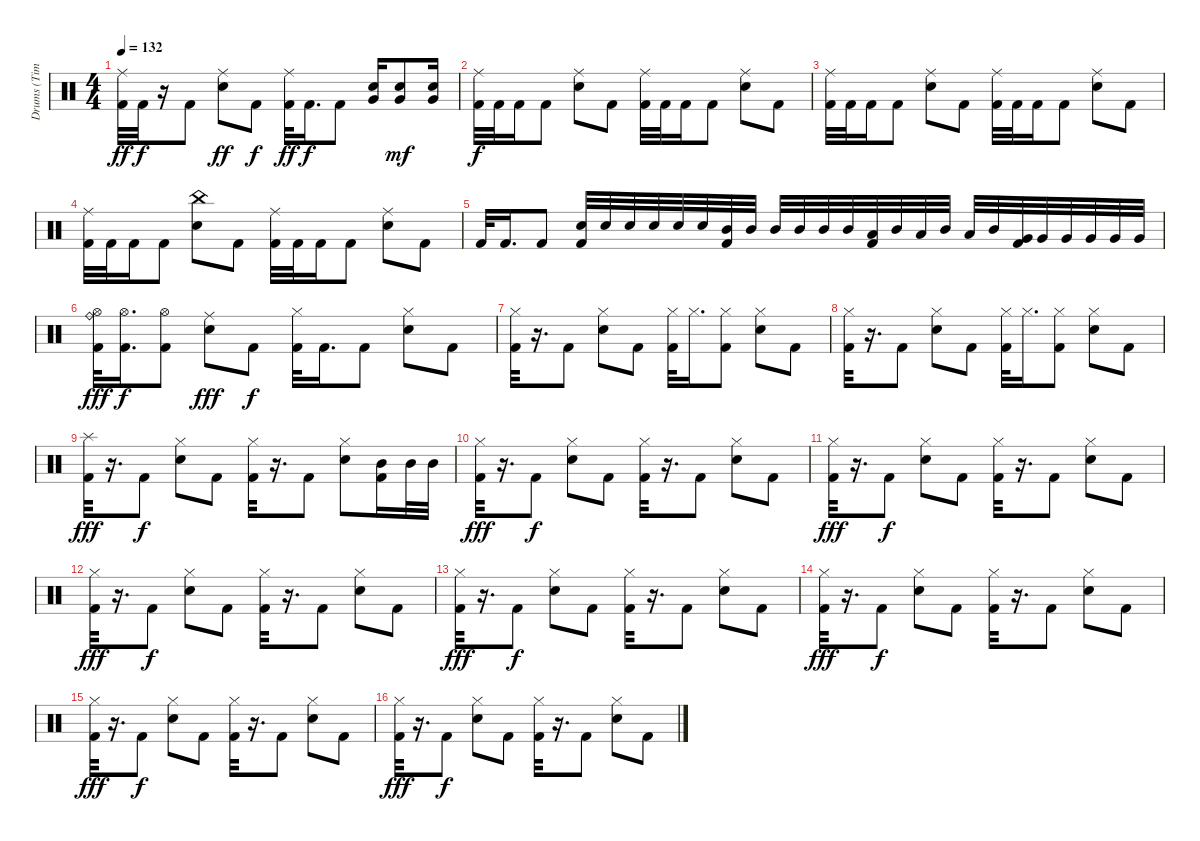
\track ("Drums (Tim Alexander)" "Drums (Tim") {instrument percussion}
\staff {score}
\articulation defaults
\ts (4 4)
\tempo 132
\clef neutral
\ks c
("Ride (middle)" "Kick (hit) 2").32{dy ff} "Kick (hit) 2".32{dy f} r.16 "Kick (hit) 2".8 ("Ride (middle)" "Snare (hit) 2").8{dy ff} "Kick (hit) 2".8{dy f} ("Ride (middle)" "Kick (hit) 2").32{dy ff} "Kick (hit) 2".16{d dy f} "Kick (hit) 2".8 ("Snare (hit) 2" "Very Low Tom (hit)").16 ("Very Low Tom (hit)" "Snare (hit) 2").8{dy mf} ("Very Low Tom (hit)" "Snare (hit) 2").16 |
("Ride (middle)" "Kick (hit) 2").32{dy f} "Kick (hit) 2".32 "Kick (hit) 2".16 "Kick (hit) 2".8 ("Ride (middle)" "Snare (hit) 2").8 "Kick (hit) 2".8 ("Ride (middle)" "Kick (hit) 2").32 "Kick (hit) 2".32 "Kick (hit) 2".16 "Kick (hit) 2".8 ("Ride (middle)" "Snare (hit) 2").8 "Kick (hit) 2".8 |
("Ride (middle)" "Kick (hit) 2").32 "Kick (hit) 2".32 "Kick (hit) 2".16 "Kick (hit) 2".8 ("Ride (middle)" "Snare (hit) 2").8 "Kick (hit) 2".8 ("Ride (middle)" "Kick (hit) 2").32 "Kick (hit) 2".32 "Kick (hit) 2".16 "Kick (hit) 2".8 ("Ride (middle)" "Snare (hit) 2").8 "Kick (hit) 2".8 |
("Ride (middle)" "Kick (hit) 2").32 "Kick (hit) 2".32 "Kick (hit) 2".16 "Kick (hit) 2".8 ("China (hit)" "Snare (hit) 2").8 "Kick (hit) 2".8 ("Ride (middle)" "Kick (hit) 2").32 "Kick (hit) 2".32 "Kick (hit) 2".16 "Kick (hit) 2".8 ("Ride (middle)" "Snare (hit) 2").8 "Kick (hit) 2".8 |
"Kick (hit) 2".32 "Kick (hit) 2".16{d} "Kick (hit) 2".8 ("Snare (hit) 2" "Kick (hit) 2").32 "Snare (hit) 2".32 "Snare (hit) 2".32 "Snare (hit) 2".32 "Snare (hit) 2".32 "Snare (hit) 2".32 ("Mid Tom (hit)" "Kick (hit) 2").32 "Mid Tom (hit)".32 "Mid Tom (hit)".32 "Mid Tom (hit)".32 "Mid Tom (hit)".32 "Mid Tom (hit)".32 ("Low Tom (hit)" "Kick (hit) 2").32 "Mid Tom (hit)".32 "Low Tom (hit)".32 "Mid Tom (hit)".32 "Low Tom (hit)".32 "Mid Tom (hit)".32 ("Very Low Tom (hit)" "Kick (hit) 2").32 "Very Low Tom (hit)".32 "Very Low Tom (hit)".32 "Very Low Tom (hit)".32 "Very Low Tom (hit)".32 "Very Low Tom (hit)".32 |
("Hi-Hat (open)" "Ride (bell)" "Kick (hit) 2").32{dy fff} ("Hi-Hat (open)" "Kick (hit) 2").16{d dy f} ("Hi-Hat (open)" "Kick (hit) 2").8 ("Ride (middle)" "Snare (hit) 2").8{dy fff} "Kick (hit) 2".8{dy f} ("Hi-Hat (closed)" "Kick (hit) 2").32 "Kick (hit) 2".16{d} "Kick (hit) 2".8 ("Hi-Hat (closed)" "Snare (hit) 2").8 "Kick (hit) 2".8 |
("Hi-Hat (closed)" "Kick (hit) 2").32 r.16{d} "Kick (hit) 2".8 ("Hi-Hat (closed)" "Snare (hit) 2").8 "Kick (hit) 2".8 ("Hi-Hat (closed)" "Kick (hit) 2").32 "Hi-Hat (closed)".16{d} ("Hi-Hat (closed)" "Kick (hit) 2").8 ("Hi-Hat (closed)" "Snare (hit) 2").8 "Kick (hit) 2".8 |
("Hi-Hat (closed)" "Kick (hit) 2").32 r.16{d} "Kick (hit) 2".8 ("Hi-Hat (closed)" "Snare (hit) 2").8 "Kick (hit) 2".8 ("Hi-Hat (closed)" "Kick (hit) 2").32 "Hi-Hat (closed)".16{d} ("Hi-Hat (closed)" "Kick (hit) 2").8 ("Hi-Hat (closed)" "Snare (hit) 2").8 "Kick (hit) 2".8 |
("Splash (hit)" "Kick (hit) 2").32{dy fff} r.16{d} "Kick (hit) 2".8{dy f} ("Hi-Hat (closed)" "Snare (hit) 2").8 "Kick (hit) 2".8 ("Hi-Hat (closed)" "Kick (hit) 2").32 r.16{d} "Kick (hit) 2".8 ("Hi-Hat (closed)" "Snare (hit) 2").8 ("Mid Tom (hit)" "Kick (hit) 2").16 "Mid Tom (hit)".32 "Mid Tom (hit)".32 |
("Hi-Hat (closed)" "Kick (hit) 2").32{dy fff} r.16{d} "Kick (hit) 2".8{dy f} ("Hi-Hat (closed)" "Snare (hit) 2").8 "Kick (hit) 2".8 ("Hi-Hat (closed)" "Kick (hit) 2").32 r.16{d} "Kick (hit) 2".8 ("Hi-Hat (closed)" "Snare (hit) 2").8 "Kick (hit) 2".8 |
("Hi-Hat (closed)" "Kick (hit) 2").32{dy fff} r.16{d} "Kick (hit) 2".8{dy f} ("Hi-Hat (closed)" "Snare (hit) 2").8 "Kick (hit) 2".8 ("Hi-Hat (closed)" "Kick (hit) 2").32 r.16{d} "Kick (hit) 2".8 ("Hi-Hat (closed)" "Snare (hit) 2").8 "Kick (hit) 2".8 |
("Hi-Hat (closed)" "Kick (hit) 2").32{dy fff} r.16{d} "Kick (hit) 2".8{dy f} ("Hi-Hat (closed)" "Snare (hit) 2").8 "Kick (hit) 2".8 ("Hi-Hat (closed)" "Kick (hit) 2").32 r.16{d} "Kick (hit) 2".8 ("Hi-Hat (closed)" "Snare (hit) 2").8 "Kick (hit) 2".8 |
("Hi-Hat (closed)" "Kick (hit) 2").32{dy fff} r.16{d} "Kick (hit) 2".8{dy f} ("Hi-Hat (closed)" "Snare (hit) 2").8 "Kick (hit) 2".8 ("Hi-Hat (closed)" "Kick (hit) 2").32 r.16{d} "Kick (hit) 2".8 ("Hi-Hat (closed)" "Snare (hit) 2").8 "Kick (hit) 2".8 |
("Hi-Hat (closed)" "Kick (hit) 2").32{dy fff} r.16{d} "Kick (hit) 2".8{dy f} ("Hi-Hat (closed)" "Snare (hit) 2").8 "Kick (hit) 2".8 ("Hi-Hat (closed)" "Kick (hit) 2").32 r.16{d} "Kick (hit) 2".8 ("Hi-Hat (closed)" "Snare (hit) 2").8 "Kick (hit) 2".8 |
("Hi-Hat (closed)" "Kick (hit) 2").32{dy fff} r.16{d} "Kick (hit) 2".8{dy f} ("Hi-Hat (closed)" "Snare (hit) 2").8 "Kick (hit) 2".8 ("Hi-Hat (closed)" "Kick (hit) 2").32 r.16{d} "Kick (hit) 2".8 ("Hi-Hat (closed)" "Snare (hit) 2").8 "Kick (hit) 2".8 |
("Hi-Hat (closed)" "Kick (hit) 2").32{dy fff} r.16{d} "Kick (hit) 2".8{dy f} ("Hi-Hat (closed)" "Snare (hit) 2").8 "Kick (hit) 2".8 ("Hi-Hat (closed)" "Kick (hit) 2").32 r.16{d} "Kick (hit) 2".8 ("Hi-Hat (closed)" "Snare (hit) 2").8 "Kick (hit) 2".8
